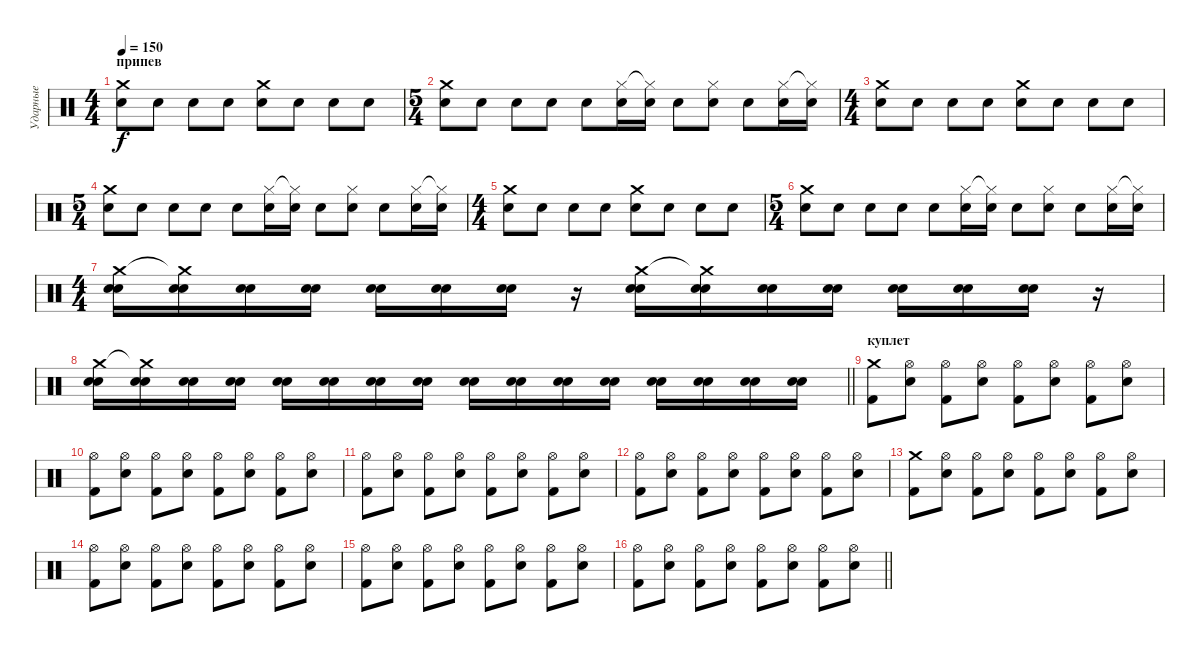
\track ("Ударные" "Ударные") {instrument percussion}
\staff {score}
\articulation defaults
\ts (4 4)
\section ("" "припев")
\tempo 150
\clef neutral
\ks c
("Snare (hit) 2" "Crash medium (hit)").8{dy f} "Snare (hit) 2".8 "Snare (hit) 2".8 "Snare (hit) 2".8 ("Snare (hit) 2" "Crash medium (hit)").8 "Snare (hit) 2".8 "Snare (hit) 2".8 "Snare (hit) 2".8 |
\ts (5 4)
("Snare (hit) 2" "Crash medium (hit)").8 "Snare (hit) 2".8 "Snare (hit) 2".8 "Snare (hit) 2".8 "Electric Snare (hit)".8 ("Hi-Hat (closed)" "Electric Snare (hit)").16 ("Hi-Hat (closed)"{t} "Snare (hit) 2").16 "Snare (hit) 2".8 ("Hi-Hat (closed)" "Snare (hit) 2").8 "Snare (hit) 2".8 ("Hi-Hat (closed)" "Electric Snare (hit)").16 ("Hi-Hat (closed)"{t} "Snare (hit) 2").16 |
\ts (4 4)
("Snare (hit) 2" "Crash medium (hit)").8 "Snare (hit) 2".8 "Snare (hit) 2".8 "Snare (hit) 2".8 ("Snare (hit) 2" "Crash medium (hit)").8 "Snare (hit) 2".8 "Snare (hit) 2".8 "Snare (hit) 2".8 |
\ts (5 4)
("Snare (hit) 2" "Crash medium (hit)").8 "Snare (hit) 2".8 "Snare (hit) 2".8 "Snare (hit) 2".8 "Electric Snare (hit)".8 ("Hi-Hat (closed)" "Electric Snare (hit)").16 ("Hi-Hat (closed)"{t} "Snare (hit) 2").16 "Snare (hit) 2".8 ("Hi-Hat (closed)" "Snare (hit) 2").8 "Snare (hit) 2".8 ("Hi-Hat (closed)" "Electric Snare (hit)").16 ("Hi-Hat (closed)"{t} "Snare (hit) 2").16 |
\ts (4 4)
("Snare (hit) 2" "Crash medium (hit)").8 "Snare (hit) 2".8 "Snare (hit) 2".8 "Snare (hit) 2".8 ("Snare (hit) 2" "Crash medium (hit)").8 "Snare (hit) 2".8 "Snare (hit) 2".8 "Snare (hit) 2".8 |
\ts (5 4)
("Snare (hit) 2" "Crash medium (hit)").8 "Snare (hit) 2".8 "Snare (hit) 2".8 "Snare (hit) 2".8 "Electric Snare (hit)".8 ("Hi-Hat (closed)" "Electric Snare (hit)").16 ("Hi-Hat (closed)"{t} "Snare (hit) 2").16 "Snare (hit) 2".8 ("Hi-Hat (closed)" "Snare (hit) 2").8 "Snare (hit) 2".8 ("Hi-Hat (closed)" "Electric Snare (hit)").16 ("Hi-Hat (closed)"{t} "Snare (hit) 2").16 |
\ts (4 4)
("Electric Snare (hit)" "Snare (hit) 2" "Crash medium (hit)").16 ("Electric Snare (hit)" "Snare (hit) 2" "Crash medium (hit)"{t}).16 ("Electric Snare (hit)" "Snare (hit) 2").16 ("Electric Snare (hit)" "Snare (hit) 2").16 ("Electric Snare (hit)" "Snare (hit) 2").16 ("Electric Snare (hit)" "Snare (hit) 2").16 ("Electric Snare (hit)" "Snare (hit) 2").16 r.16 ("Electric Snare (hit)" "Snare (hit) 2" "Crash medium (hit)").16 ("Electric Snare (hit)" "Snare (hit) 2" "Crash medium (hit)"{t}).16 ("Electric Snare (hit)" "Snare (hit) 2").16 ("Electric Snare (hit)" "Snare (hit) 2").16 ("Electric Snare (hit)" "Snare (hit) 2").16 ("Electric Snare (hit)" "Snare (hit) 2").16 ("Electric Snare (hit)" "Snare (hit) 2").16 r.16 |
\barLineRight lightlight
("Electric Snare (hit)" "Snare (hit) 2" "Crash medium (hit)").16 ("Electric Snare (hit)" "Snare (hit) 2" "Crash medium (hit)"{t}).16 ("Electric Snare (hit)" "Snare (hit) 2").16 ("Electric Snare (hit)" "Snare (hit) 2").16 ("Electric Snare (hit)" "Snare (hit) 2").16 ("Electric Snare (hit)" "Snare (hit) 2").16 ("Electric Snare (hit)" "Snare (hit) 2").16 ("Electric Snare (hit)" "Snare (hit) 2").16 ("Electric Snare (hit)" "Snare (hit) 2").16 ("Electric Snare (hit)" "Snare (hit) 2").16 ("Electric Snare (hit)" "Snare (hit) 2").16 ("Electric Snare (hit)" "Snare (hit) 2").16 ("Electric Snare (hit)" "Snare (hit) 2").16 ("Electric Snare (hit)" "Snare (hit) 2").16 ("Electric Snare (hit)" "Snare (hit) 2").16 ("Electric Snare (hit)" "Snare (hit) 2").16 |
\section ("" "куплет")
("Kick (hit) 2" "Crash medium (hit)").8 ("Electric Snare (hit)" "Hi-Hat (open)").8 ("Kick (hit) 2" "Hi-Hat (open)").8 ("Electric Snare (hit)" "Hi-Hat (open)").8 ("Kick (hit) 2" "Hi-Hat (open)").8 ("Electric Snare (hit)" "Hi-Hat (open)").8 ("Kick (hit) 2" "Hi-Hat (open)").8 ("Electric Snare (hit)" "Hi-Hat (open)").8 |
("Kick (hit) 2" "Hi-Hat (open)").8 ("Electric Snare (hit)" "Hi-Hat (open)").8 ("Kick (hit) 2" "Hi-Hat (open)").8 ("Electric Snare (hit)" "Hi-Hat (open)").8 ("Kick (hit) 2" "Hi-Hat (open)").8 ("Electric Snare (hit)" "Hi-Hat (open)").8 ("Kick (hit) 2" "Hi-Hat (open)").8 ("Electric Snare (hit)" "Hi-Hat (open)").8 |
("Kick (hit) 2" "Hi-Hat (open)").8 ("Electric Snare (hit)" "Hi-Hat (open)").8 ("Kick (hit) 2" "Hi-Hat (open)").8 ("Electric Snare (hit)" "Hi-Hat (open)").8 ("Kick (hit) 2" "Hi-Hat (open)").8 ("Electric Snare (hit)" "Hi-Hat (open)").8 ("Kick (hit) 2" "Hi-Hat (open)").8 ("Electric Snare (hit)" "Hi-Hat (open)").8 |
("Kick (hit) 2" "Hi-Hat (open)").8 ("Electric Snare (hit)" "Hi-Hat (open)").8 ("Kick (hit) 2" "Hi-Hat (open)").8 ("Electric Snare (hit)" "Hi-Hat (open)").8 ("Kick (hit) 2" "Hi-Hat (open)").8 ("Electric Snare (hit)" "Hi-Hat (open)").8 ("Kick (hit) 2" "Hi-Hat (open)").8 ("Electric Snare (hit)" "Hi-Hat (open)").8 |
("Kick (hit) 2" "Crash medium (hit)").8 ("Electric Snare (hit)" "Hi-Hat (open)").8 ("Kick (hit) 2" "Hi-Hat (open)").8 ("Electric Snare (hit)" "Hi-Hat (open)").8 ("Kick (hit) 2" "Hi-Hat (open)").8 ("Electric Snare (hit)" "Hi-Hat (open)").8 ("Kick (hit) 2" "Hi-Hat (open)").8 ("Electric Snare (hit)" "Hi-Hat (open)").8 |
("Kick (hit) 2" "Hi-Hat (open)").8 ("Electric Snare (hit)" "Hi-Hat (open)").8 ("Kick (hit) 2" "Hi-Hat (open)").8 ("Electric Snare (hit)" "Hi-Hat (open)").8 ("Kick (hit) 2" "Hi-Hat (open)").8 ("Electric Snare (hit)" "Hi-Hat (open)").8 ("Kick (hit) 2" "Hi-Hat (open)").8 ("Electric Snare (hit)" "Hi-Hat (open)").8 |
("Kick (hit) 2" "Hi-Hat (open)").8 ("Electric Snare (hit)" "Hi-Hat (open)").8 ("Kick (hit) 2" "Hi-Hat (open)").8 ("Electric Snare (hit)" "Hi-Hat (open)").8 ("Kick (hit) 2" "Hi-Hat (open)").8 ("Electric Snare (hit)" "Hi-Hat (open)").8 ("Kick (hit) 2" "Hi-Hat (open)").8 ("Electric Snare (hit)" "Hi-Hat (open)").8 |
\barLineRight lightlight
("Kick (hit) 2" "Hi-Hat (open)").8 ("Electric Snare (hit)" "Hi-Hat (open)").8 ("Kick (hit) 2" "Hi-Hat (open)").8 ("Electric Snare (hit)" "Hi-Hat (open)").8 ("Kick (hit) 2" "Hi-Hat (open)").8 ("Electric Snare (hit)" "Hi-Hat (open)").8 ("Kick (hit) 2" "Hi-Hat (open)").8 ("Electric Snare (hit)" "Hi-Hat (open)").8
